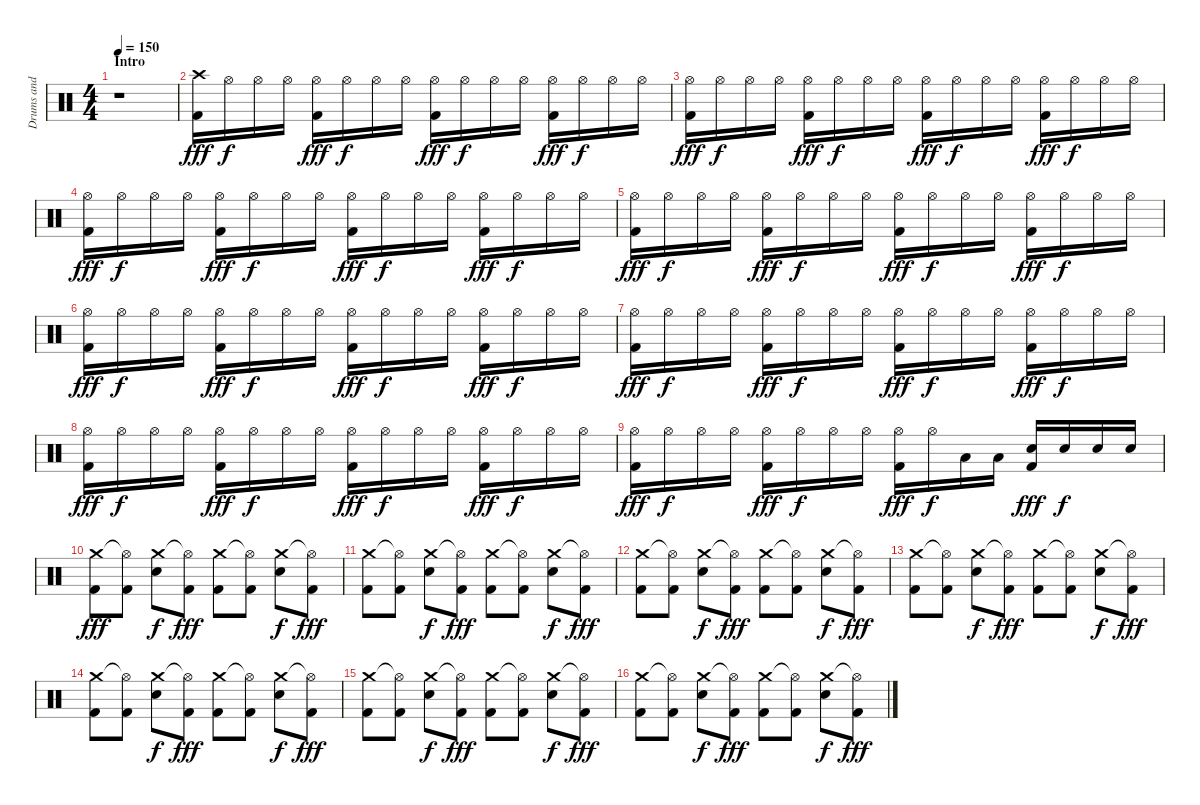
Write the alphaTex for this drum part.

\track ("Drums and Percussion" "Drums and ") {instrument percussion}
\staff {score}
\articulation defaults
\ts (4 4)
\section ("" "Intro")
\tempo 150
\clef neutral
\ks c
r.1{dy fff} |
("Crash high (hit)" "Kick (hit) 2").16 "Hi-Hat (open)".16{dy f} "Hi-Hat (open)".16 "Hi-Hat (open)".16 ("Hi-Hat (open)" "Kick (hit) 2").16{dy fff} "Hi-Hat (open)".16{dy f} "Hi-Hat (open)".16 "Hi-Hat (open)".16 ("Hi-Hat (open)" "Kick (hit) 2").16{dy fff} "Hi-Hat (open)".16{dy f} "Hi-Hat (open)".16 "Hi-Hat (open)".16 ("Hi-Hat (open)" "Kick (hit) 2").16{dy fff} "Hi-Hat (open)".16{dy f} "Hi-Hat (open)".16 "Hi-Hat (open)".16 |
("Hi-Hat (open)" "Kick (hit) 2").16{dy fff} "Hi-Hat (open)".16{dy f} "Hi-Hat (open)".16 "Hi-Hat (open)".16 ("Hi-Hat (open)" "Kick (hit) 2").16{dy fff} "Hi-Hat (open)".16{dy f} "Hi-Hat (open)".16 "Hi-Hat (open)".16 ("Hi-Hat (open)" "Kick (hit) 2").16{dy fff} "Hi-Hat (open)".16{dy f} "Hi-Hat (open)".16 "Hi-Hat (open)".16 ("Hi-Hat (open)" "Kick (hit) 2").16{dy fff} "Hi-Hat (open)".16{dy f} "Hi-Hat (open)".16 "Hi-Hat (open)".16 |
("Hi-Hat (open)" "Kick (hit) 2").16{dy fff} "Hi-Hat (open)".16{dy f} "Hi-Hat (open)".16 "Hi-Hat (open)".16 ("Hi-Hat (open)" "Kick (hit) 2").16{dy fff} "Hi-Hat (open)".16{dy f} "Hi-Hat (open)".16 "Hi-Hat (open)".16 ("Hi-Hat (open)" "Kick (hit) 2").16{dy fff} "Hi-Hat (open)".16{dy f} "Hi-Hat (open)".16 "Hi-Hat (open)".16 ("Hi-Hat (open)" "Kick (hit) 2").16{dy fff} "Hi-Hat (open)".16{dy f} "Hi-Hat (open)".16 "Hi-Hat (open)".16 |
("Hi-Hat (open)" "Kick (hit) 2").16{dy fff} "Hi-Hat (open)".16{dy f} "Hi-Hat (open)".16 "Hi-Hat (open)".16 ("Hi-Hat (open)" "Kick (hit) 2").16{dy fff} "Hi-Hat (open)".16{dy f} "Hi-Hat (open)".16 "Hi-Hat (open)".16 ("Hi-Hat (open)" "Kick (hit) 2").16{dy fff} "Hi-Hat (open)".16{dy f} "Hi-Hat (open)".16 "Hi-Hat (open)".16 ("Hi-Hat (open)" "Kick (hit) 2").16{dy fff} "Hi-Hat (open)".16{dy f} "Hi-Hat (open)".16 "Hi-Hat (open)".16 |
("Hi-Hat (open)" "Kick (hit) 2").16{dy fff} "Hi-Hat (open)".16{dy f} "Hi-Hat (open)".16 "Hi-Hat (open)".16 ("Hi-Hat (open)" "Kick (hit) 2").16{dy fff} "Hi-Hat (open)".16{dy f} "Hi-Hat (open)".16 "Hi-Hat (open)".16 ("Hi-Hat (open)" "Kick (hit) 2").16{dy fff} "Hi-Hat (open)".16{dy f} "Hi-Hat (open)".16 "Hi-Hat (open)".16 ("Hi-Hat (open)" "Kick (hit) 2").16{dy fff} "Hi-Hat (open)".16{dy f} "Hi-Hat (open)".16 "Hi-Hat (open)".16 |
("Hi-Hat (open)" "Kick (hit) 2").16{dy fff} "Hi-Hat (open)".16{dy f} "Hi-Hat (open)".16 "Hi-Hat (open)".16 ("Hi-Hat (open)" "Kick (hit) 2").16{dy fff} "Hi-Hat (open)".16{dy f} "Hi-Hat (open)".16 "Hi-Hat (open)".16 ("Hi-Hat (open)" "Kick (hit) 2").16{dy fff} "Hi-Hat (open)".16{dy f} "Hi-Hat (open)".16 "Hi-Hat (open)".16 ("Hi-Hat (open)" "Kick (hit) 2").16{dy fff} "Hi-Hat (open)".16{dy f} "Hi-Hat (open)".16 "Hi-Hat (open)".16 |
("Hi-Hat (open)" "Kick (hit) 2").16{dy fff} "Hi-Hat (open)".16{dy f} "Hi-Hat (open)".16 "Hi-Hat (open)".16 ("Hi-Hat (open)" "Kick (hit) 2").16{dy fff} "Hi-Hat (open)".16{dy f} "Hi-Hat (open)".16 "Hi-Hat (open)".16 ("Hi-Hat (open)" "Kick (hit) 2").16{dy fff} "Hi-Hat (open)".16{dy f} "Hi-Hat (open)".16 "Hi-Hat (open)".16 ("Hi-Hat (open)" "Kick (hit) 2").16{dy fff} "Hi-Hat (open)".16{dy f} "Hi-Hat (open)".16 "Hi-Hat (open)".16 |
("Hi-Hat (open)" "Kick (hit) 2").16{dy fff} "Hi-Hat (open)".16{dy f} "Hi-Hat (open)".16 "Hi-Hat (open)".16 ("Hi-Hat (open)" "Kick (hit) 2").16{dy fff} "Hi-Hat (open)".16{dy f} "Hi-Hat (open)".16 "Hi-Hat (open)".16 ("Hi-Hat (open)" "Kick (hit) 2").16{dy fff} "Hi-Hat (open)".16{dy f} "Low Tom (hit)".16 "Low Tom (hit)".16 ("Electric Snare (hit)" "Kick (hit) 2").16{dy fff} "Electric Snare (hit)".16{dy f} "Electric Snare (hit)".16 "Electric Snare (hit)".16 |
("Crash medium (hit)" "Kick (hit) 2").8{dy fff} ("Hi-Hat (open)"{t} "Kick (hit) 2").8 ("Crash medium (hit)" "Electric Snare (hit)").8{dy f} ("Hi-Hat (open)"{t} "Kick (hit) 2").8{dy fff} ("Crash medium (hit)" "Kick (hit) 2").8 ("Hi-Hat (open)"{t} "Kick (hit) 2").8 ("Crash medium (hit)" "Electric Snare (hit)").8{dy f} ("Hi-Hat (open)"{t} "Kick (hit) 2").8{dy fff} |
("Crash medium (hit)" "Kick (hit) 2").8 ("Hi-Hat (open)"{t} "Kick (hit) 2").8 ("Crash medium (hit)" "Electric Snare (hit)").8{dy f} ("Hi-Hat (open)"{t} "Kick (hit) 2").8{dy fff} ("Crash medium (hit)" "Kick (hit) 2").8 ("Hi-Hat (open)"{t} "Kick (hit) 2").8 ("Crash medium (hit)" "Electric Snare (hit)").8{dy f} ("Hi-Hat (open)"{t} "Kick (hit) 2").8{dy fff} |
("Crash medium (hit)" "Kick (hit) 2").8 ("Hi-Hat (open)"{t} "Kick (hit) 2").8 ("Crash medium (hit)" "Electric Snare (hit)").8{dy f} ("Hi-Hat (open)"{t} "Kick (hit) 2").8{dy fff} ("Crash medium (hit)" "Kick (hit) 2").8 ("Hi-Hat (open)"{t} "Kick (hit) 2").8 ("Crash medium (hit)" "Electric Snare (hit)").8{dy f} ("Hi-Hat (open)"{t} "Kick (hit) 2").8{dy fff} |
("Crash medium (hit)" "Kick (hit) 2").8 ("Hi-Hat (open)"{t} "Kick (hit) 2").8 ("Crash medium (hit)" "Electric Snare (hit)").8{dy f} ("Hi-Hat (open)"{t} "Kick (hit) 2").8{dy fff} ("Crash medium (hit)" "Kick (hit) 2").8 ("Hi-Hat (open)"{t} "Kick (hit) 2").8 ("Crash medium (hit)" "Electric Snare (hit)").8{dy f} ("Hi-Hat (open)"{t} "Kick (hit) 2").8{dy fff} |
("Crash medium (hit)" "Kick (hit) 2").8 ("Hi-Hat (open)"{t} "Kick (hit) 2").8 ("Crash medium (hit)" "Electric Snare (hit)").8{dy f} ("Hi-Hat (open)"{t} "Kick (hit) 2").8{dy fff} ("Crash medium (hit)" "Kick (hit) 2").8 ("Hi-Hat (open)"{t} "Kick (hit) 2").8 ("Crash medium (hit)" "Electric Snare (hit)").8{dy f} ("Hi-Hat (open)"{t} "Kick (hit) 2").8{dy fff} |
("Crash medium (hit)" "Kick (hit) 2").8 ("Hi-Hat (open)"{t} "Kick (hit) 2").8 ("Crash medium (hit)" "Electric Snare (hit)").8{dy f} ("Hi-Hat (open)"{t} "Kick (hit) 2").8{dy fff} ("Crash medium (hit)" "Kick (hit) 2").8 ("Hi-Hat (open)"{t} "Kick (hit) 2").8 ("Crash medium (hit)" "Electric Snare (hit)").8{dy f} ("Hi-Hat (open)"{t} "Kick (hit) 2").8{dy fff} |
("Crash medium (hit)" "Kick (hit) 2").8 ("Hi-Hat (open)"{t} "Kick (hit) 2").8 ("Crash medium (hit)" "Electric Snare (hit)").8{dy f} ("Hi-Hat (open)"{t} "Kick (hit) 2").8{dy fff} ("Crash medium (hit)" "Kick (hit) 2").8 ("Hi-Hat (open)"{t} "Kick (hit) 2").8 ("Crash medium (hit)" "Electric Snare (hit)").8{dy f} ("Hi-Hat (open)"{t} "Kick (hit) 2").8{dy fff}
